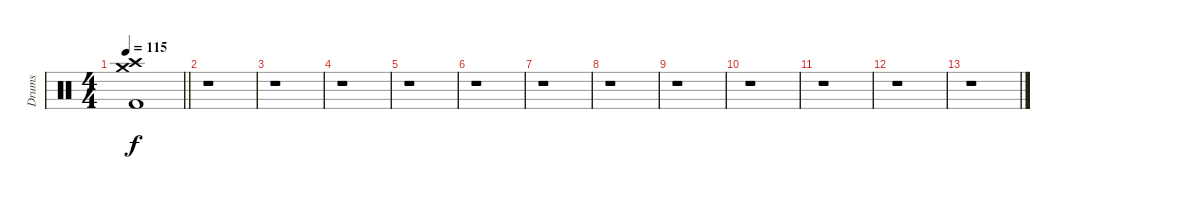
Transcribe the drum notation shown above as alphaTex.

\track ("Drums" "Drums") {instrument percussion}
\staff {score}
\articulation defaults
\ts (4 4)
\tempo 115
\clef neutral
\barLineRight lightlight
\ks c
("Crash medium (hit)" "Kick (hit) 2" "Crash high (hit)").1{dy f} |
r.1 |
r.1 |
r.1 |
r.1 |
r.1 |
r.1 |
r.1 |
r.1 |
r.1 |
r.1 |
r.1 |
r.1
